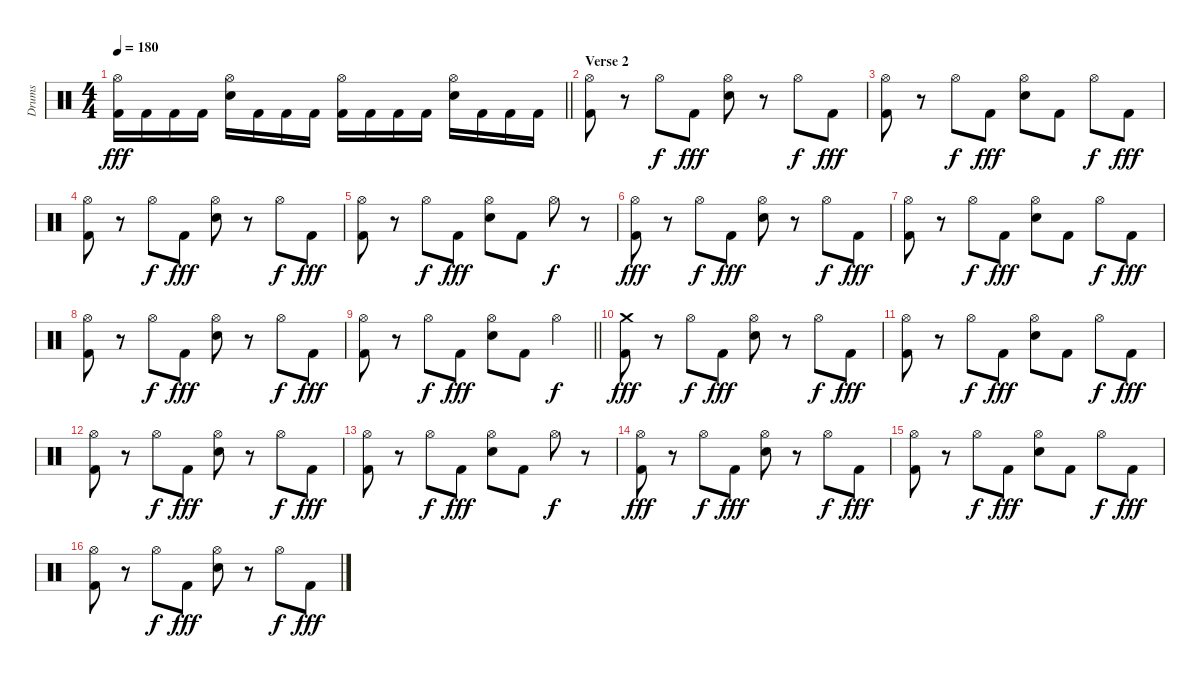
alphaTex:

\track ("Drums" "Drums") {instrument percussion}
\staff {score}
\articulation defaults
\ts (4 4)
\tempo 180
\clef neutral
\barLineRight lightlight
\ks c
("Hi-Hat (open)" "Kick (hit) 2").16{dy fff} "Kick (hit) 2".16 "Kick (hit) 2".16 "Kick (hit) 2".16 ("Hi-Hat (open)" "Electric Snare (hit)").16 "Kick (hit) 2".16 "Kick (hit) 2".16 "Kick (hit) 2".16 ("Hi-Hat (open)" "Kick (hit) 2").16 "Kick (hit) 2".16 "Kick (hit) 2".16 "Kick (hit) 2".16 ("Hi-Hat (open)" "Electric Snare (hit)").16 "Kick (hit) 2".16 "Kick (hit) 2".16 "Kick (hit) 2".16 |
\section ("" "Verse 2")
("Hi-Hat (open)" "Kick (hit) 2").8 r.8 "Hi-Hat (open)".8{dy f} "Kick (hit) 2".8{dy fff} ("Hi-Hat (open)" "Electric Snare (hit)").8 r.8 "Hi-Hat (open)".8{dy f} "Kick (hit) 2".8{dy fff} |
("Hi-Hat (open)" "Kick (hit) 2").8 r.8 "Hi-Hat (open)".8{dy f} "Kick (hit) 2".8{dy fff} ("Hi-Hat (open)" "Electric Snare (hit)").8 "Kick (hit) 2".8 "Hi-Hat (open)".8{dy f} "Kick (hit) 2".8{dy fff} |
("Hi-Hat (open)" "Kick (hit) 2").8 r.8 "Hi-Hat (open)".8{dy f} "Kick (hit) 2".8{dy fff} ("Hi-Hat (open)" "Electric Snare (hit)").8 r.8 "Hi-Hat (open)".8{dy f} "Kick (hit) 2".8{dy fff} |
("Hi-Hat (open)" "Kick (hit) 2").8 r.8 "Hi-Hat (open)".8{dy f} "Kick (hit) 2".8{dy fff} ("Hi-Hat (open)" "Electric Snare (hit)").8 "Kick (hit) 2".8 "Hi-Hat (open)".8{dy f} r.8 |
("Hi-Hat (open)" "Kick (hit) 2").8{dy fff} r.8 "Hi-Hat (open)".8{dy f} "Kick (hit) 2".8{dy fff} ("Hi-Hat (open)" "Electric Snare (hit)").8 r.8 "Hi-Hat (open)".8{dy f} "Kick (hit) 2".8{dy fff} |
("Hi-Hat (open)" "Kick (hit) 2").8 r.8 "Hi-Hat (open)".8{dy f} "Kick (hit) 2".8{dy fff} ("Hi-Hat (open)" "Electric Snare (hit)").8 "Kick (hit) 2".8 "Hi-Hat (open)".8{dy f} "Kick (hit) 2".8{dy fff} |
("Hi-Hat (open)" "Kick (hit) 2").8 r.8 "Hi-Hat (open)".8{dy f} "Kick (hit) 2".8{dy fff} ("Hi-Hat (open)" "Electric Snare (hit)").8 r.8 "Hi-Hat (open)".8{dy f} "Kick (hit) 2".8{dy fff} |
\barLineRight lightlight
("Hi-Hat (open)" "Kick (hit) 2").8 r.8 "Hi-Hat (open)".8{dy f} "Kick (hit) 2".8{dy fff} ("Hi-Hat (open)" "Electric Snare (hit)").8 "Kick (hit) 2".8 "Hi-Hat (open)".4{dy f} |
\section ("" "")
("Crash medium (hit)" "Kick (hit) 2").8{dy fff} r.8 "Hi-Hat (open)".8{dy f} "Kick (hit) 2".8{dy fff} ("Hi-Hat (open)" "Electric Snare (hit)").8 r.8 "Hi-Hat (open)".8{dy f} "Kick (hit) 2".8{dy fff} |
("Hi-Hat (open)" "Kick (hit) 2").8 r.8 "Hi-Hat (open)".8{dy f} "Kick (hit) 2".8{dy fff} ("Hi-Hat (open)" "Electric Snare (hit)").8 "Kick (hit) 2".8 "Hi-Hat (open)".8{dy f} "Kick (hit) 2".8{dy fff} |
("Hi-Hat (open)" "Kick (hit) 2").8 r.8 "Hi-Hat (open)".8{dy f} "Kick (hit) 2".8{dy fff} ("Hi-Hat (open)" "Electric Snare (hit)").8 r.8 "Hi-Hat (open)".8{dy f} "Kick (hit) 2".8{dy fff} |
("Hi-Hat (open)" "Kick (hit) 2").8 r.8 "Hi-Hat (open)".8{dy f} "Kick (hit) 2".8{dy fff} ("Hi-Hat (open)" "Electric Snare (hit)").8 "Kick (hit) 2".8 "Hi-Hat (open)".8{dy f} r.8 |
("Hi-Hat (open)" "Kick (hit) 2").8{dy fff} r.8 "Hi-Hat (open)".8{dy f} "Kick (hit) 2".8{dy fff} ("Hi-Hat (open)" "Electric Snare (hit)").8 r.8 "Hi-Hat (open)".8{dy f} "Kick (hit) 2".8{dy fff} |
("Hi-Hat (open)" "Kick (hit) 2").8 r.8 "Hi-Hat (open)".8{dy f} "Kick (hit) 2".8{dy fff} ("Hi-Hat (open)" "Electric Snare (hit)").8 "Kick (hit) 2".8 "Hi-Hat (open)".8{dy f} "Kick (hit) 2".8{dy fff} |
("Hi-Hat (open)" "Kick (hit) 2").8 r.8 "Hi-Hat (open)".8{dy f} "Kick (hit) 2".8{dy fff} ("Hi-Hat (open)" "Electric Snare (hit)").8 r.8 "Hi-Hat (open)".8{dy f} "Kick (hit) 2".8{dy fff}
